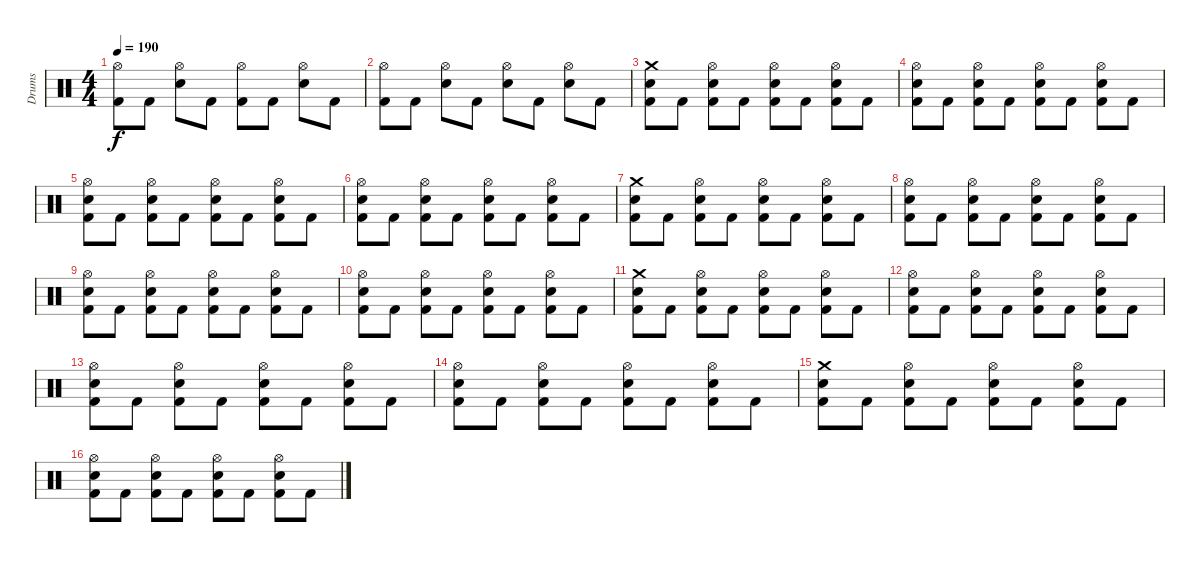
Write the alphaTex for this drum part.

\track ("Drums" "Drums") {instrument percussion}
\staff {score}
\articulation defaults
\ts (4 4)
\tempo 190
\clef neutral
\ks c
("Hi-Hat (open)" "Kick (hit) 2").8{dy f} "Kick (hit) 2".8 ("Hi-Hat (open)" "Snare (hit) 2").8 "Kick (hit) 2".8 ("Hi-Hat (open)" "Kick (hit) 2").8 "Kick (hit) 2".8 ("Hi-Hat (open)" "Snare (hit) 2").8 "Kick (hit) 2".8 |
("Hi-Hat (open)" "Kick (hit) 2").8 "Kick (hit) 2".8 ("Hi-Hat (open)" "Snare (hit) 2").8 "Kick (hit) 2".8 ("Hi-Hat (open)" "Snare (hit) 2").8 "Kick (hit) 2".8 ("Hi-Hat (open)" "Snare (hit) 2").8 "Kick (hit) 2".8 |
("Crash medium (hit)" "Kick (hit) 2" "Snare (hit) 2").8 "Kick (hit) 2".8 ("Hi-Hat (open)" "Kick (hit) 2" "Snare (hit) 2").8 "Kick (hit) 2".8 ("Hi-Hat (open)" "Kick (hit) 2" "Snare (hit) 2").8 "Kick (hit) 2".8 ("Hi-Hat (open)" "Kick (hit) 2" "Snare (hit) 2").8 "Kick (hit) 2".8 |
("Hi-Hat (open)" "Kick (hit) 2" "Snare (hit) 2").8 "Kick (hit) 2".8 ("Hi-Hat (open)" "Kick (hit) 2" "Snare (hit) 2").8 "Kick (hit) 2".8 ("Hi-Hat (open)" "Kick (hit) 2" "Snare (hit) 2").8 "Kick (hit) 2".8 ("Hi-Hat (open)" "Kick (hit) 2" "Snare (hit) 2").8 "Kick (hit) 2".8 |
("Hi-Hat (open)" "Kick (hit) 2" "Snare (hit) 2").8 "Kick (hit) 2".8 ("Hi-Hat (open)" "Kick (hit) 2" "Snare (hit) 2").8 "Kick (hit) 2".8 ("Hi-Hat (open)" "Kick (hit) 2" "Snare (hit) 2").8 "Kick (hit) 2".8 ("Hi-Hat (open)" "Kick (hit) 2" "Snare (hit) 2").8 "Kick (hit) 2".8 |
("Hi-Hat (open)" "Kick (hit) 2" "Snare (hit) 2").8 "Kick (hit) 2".8 ("Hi-Hat (open)" "Kick (hit) 2" "Snare (hit) 2").8 "Kick (hit) 2".8 ("Hi-Hat (open)" "Kick (hit) 2" "Snare (hit) 2").8 "Kick (hit) 2".8 ("Hi-Hat (open)" "Kick (hit) 2" "Snare (hit) 2").8 "Kick (hit) 2".8 |
("Crash medium (hit)" "Kick (hit) 2" "Snare (hit) 2").8 "Kick (hit) 2".8 ("Hi-Hat (open)" "Kick (hit) 2" "Snare (hit) 2").8 "Kick (hit) 2".8 ("Hi-Hat (open)" "Kick (hit) 2" "Snare (hit) 2").8 "Kick (hit) 2".8 ("Hi-Hat (open)" "Kick (hit) 2" "Snare (hit) 2").8 "Kick (hit) 2".8 |
("Hi-Hat (open)" "Kick (hit) 2" "Snare (hit) 2").8 "Kick (hit) 2".8 ("Hi-Hat (open)" "Kick (hit) 2" "Snare (hit) 2").8 "Kick (hit) 2".8 ("Hi-Hat (open)" "Kick (hit) 2" "Snare (hit) 2").8 "Kick (hit) 2".8 ("Hi-Hat (open)" "Kick (hit) 2" "Snare (hit) 2").8 "Kick (hit) 2".8 |
("Hi-Hat (open)" "Kick (hit) 2" "Snare (hit) 2").8 "Kick (hit) 2".8 ("Hi-Hat (open)" "Kick (hit) 2" "Snare (hit) 2").8 "Kick (hit) 2".8 ("Hi-Hat (open)" "Kick (hit) 2" "Snare (hit) 2").8 "Kick (hit) 2".8 ("Hi-Hat (open)" "Kick (hit) 2" "Snare (hit) 2").8 "Kick (hit) 2".8 |
("Hi-Hat (open)" "Kick (hit) 2" "Snare (hit) 2").8 "Kick (hit) 2".8 ("Hi-Hat (open)" "Kick (hit) 2" "Snare (hit) 2").8 "Kick (hit) 2".8 ("Hi-Hat (open)" "Kick (hit) 2" "Snare (hit) 2").8 "Kick (hit) 2".8 ("Hi-Hat (open)" "Kick (hit) 2" "Snare (hit) 2").8 "Kick (hit) 2".8 |
("Crash medium (hit)" "Kick (hit) 2" "Snare (hit) 2").8 "Kick (hit) 2".8 ("Hi-Hat (open)" "Kick (hit) 2" "Snare (hit) 2").8 "Kick (hit) 2".8 ("Hi-Hat (open)" "Kick (hit) 2" "Snare (hit) 2").8 "Kick (hit) 2".8 ("Hi-Hat (open)" "Kick (hit) 2" "Snare (hit) 2").8 "Kick (hit) 2".8 |
("Hi-Hat (open)" "Kick (hit) 2" "Snare (hit) 2").8 "Kick (hit) 2".8 ("Hi-Hat (open)" "Kick (hit) 2" "Snare (hit) 2").8 "Kick (hit) 2".8 ("Hi-Hat (open)" "Kick (hit) 2" "Snare (hit) 2").8 "Kick (hit) 2".8 ("Hi-Hat (open)" "Kick (hit) 2" "Snare (hit) 2").8 "Kick (hit) 2".8 |
("Hi-Hat (open)" "Kick (hit) 2" "Snare (hit) 2").8 "Kick (hit) 2".8 ("Hi-Hat (open)" "Kick (hit) 2" "Snare (hit) 2").8 "Kick (hit) 2".8 ("Hi-Hat (open)" "Kick (hit) 2" "Snare (hit) 2").8 "Kick (hit) 2".8 ("Hi-Hat (open)" "Kick (hit) 2" "Snare (hit) 2").8 "Kick (hit) 2".8 |
("Hi-Hat (open)" "Kick (hit) 2" "Snare (hit) 2").8 "Kick (hit) 2".8 ("Hi-Hat (open)" "Kick (hit) 2" "Snare (hit) 2").8 "Kick (hit) 2".8 ("Hi-Hat (open)" "Kick (hit) 2" "Snare (hit) 2").8 "Kick (hit) 2".8 ("Hi-Hat (open)" "Kick (hit) 2" "Snare (hit) 2").8 "Kick (hit) 2".8 |
("Crash medium (hit)" "Kick (hit) 2" "Snare (hit) 2").8 "Kick (hit) 2".8 ("Hi-Hat (open)" "Kick (hit) 2" "Snare (hit) 2").8 "Kick (hit) 2".8 ("Hi-Hat (open)" "Kick (hit) 2" "Snare (hit) 2").8 "Kick (hit) 2".8 ("Hi-Hat (open)" "Kick (hit) 2" "Snare (hit) 2").8 "Kick (hit) 2".8 |
("Hi-Hat (open)" "Kick (hit) 2" "Snare (hit) 2").8 "Kick (hit) 2".8 ("Hi-Hat (open)" "Kick (hit) 2" "Snare (hit) 2").8 "Kick (hit) 2".8 ("Hi-Hat (open)" "Kick (hit) 2" "Snare (hit) 2").8 "Kick (hit) 2".8 ("Hi-Hat (open)" "Kick (hit) 2" "Snare (hit) 2").8 "Kick (hit) 2".8
